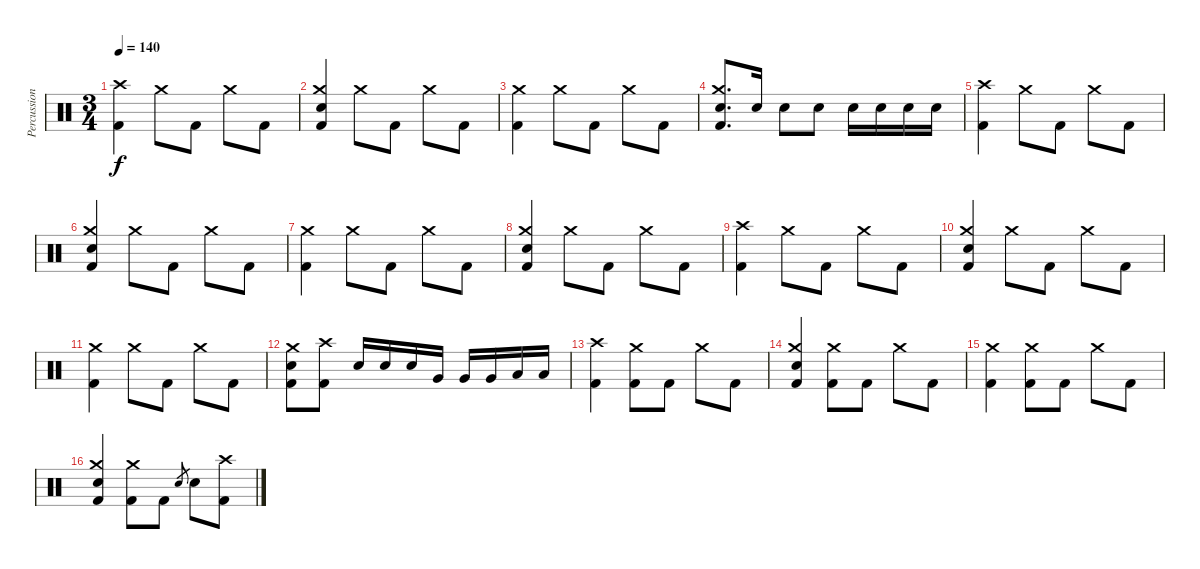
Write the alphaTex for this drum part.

\track ("Percussions" "Percussion") {instrument percussion}
\staff {score}
\articulation defaults
\ts (3 4)
\tempo 140
\clef neutral
\ks c
("Crash high (hit)" "Kick (hit) 2").4{dy f} "Crash medium (hit)".8 "Kick (hit) 2".8 "Crash medium (hit)".8 "Kick (hit) 2".8 |
("Crash medium (hit)" "Electric Snare (hit)" "Kick (hit) 2").4 "Crash medium (hit)".8 "Kick (hit) 2".8 "Crash medium (hit)".8 "Kick (hit) 2".8 |
("Crash medium (hit)" "Kick (hit) 2").4 "Crash medium (hit)".8 "Kick (hit) 2".8 "Crash medium (hit)".8 "Kick (hit) 2".8 |
("Crash medium (hit)" "Electric Snare (hit)" "Kick (hit) 2").8{d} "Electric Snare (hit)".16 "Electric Snare (hit)".8 "Electric Snare (hit)".8 "Electric Snare (hit)".16 "Electric Snare (hit)".16 "Electric Snare (hit)".16 "Electric Snare (hit)".16 |
("Crash high (hit)" "Kick (hit) 2").4 "Crash medium (hit)".8 "Kick (hit) 2".8 "Crash medium (hit)".8 "Kick (hit) 2".8 |
("Crash medium (hit)" "Electric Snare (hit)" "Kick (hit) 2").4 "Crash medium (hit)".8 "Kick (hit) 2".8 "Crash medium (hit)".8 "Kick (hit) 2".8 |
("Crash medium (hit)" "Kick (hit) 2").4 "Crash medium (hit)".8 "Kick (hit) 2".8 "Crash medium (hit)".8 "Kick (hit) 2".8 |
("Crash medium (hit)" "Electric Snare (hit)" "Kick (hit) 2").4 "Crash medium (hit)".8 "Kick (hit) 2".8 "Crash medium (hit)".8 "Kick (hit) 2".8 |
("Crash high (hit)" "Kick (hit) 2").4 "Crash medium (hit)".8 "Kick (hit) 2".8 "Crash medium (hit)".8 "Kick (hit) 2".8 |
("Crash medium (hit)" "Electric Snare (hit)" "Kick (hit) 2").4 "Crash medium (hit)".8 "Kick (hit) 2".8 "Crash medium (hit)".8 "Kick (hit) 2".8 |
("Crash medium (hit)" "Kick (hit) 2").4 "Crash medium (hit)".8 "Kick (hit) 2".8 "Crash medium (hit)".8 "Kick (hit) 2".8 |
("Crash medium (hit)" "Electric Snare (hit)" "Kick (hit) 2").8 ("Crash high (hit)" "Kick (hit) 2").8 "Electric Snare (hit)".16 "Electric Snare (hit)".16 "Electric Snare (hit)".16 "Very Low Tom (hit)".16 "Very Low Tom (hit)".16 "Very Low Tom (hit)".16 "Low Floor Tom (hit)".16 "Low Floor Tom (hit)".16 |
("Crash high (hit)" "Kick (hit) 2").4 ("Crash medium (hit)" "Kick (hit) 2").8 "Kick (hit) 2".8 "Crash medium (hit)".8 "Kick (hit) 2".8 |
("Crash medium (hit)" "Electric Snare (hit)" "Kick (hit) 2").4 ("Crash medium (hit)" "Kick (hit) 2").8 "Kick (hit) 2".8 "Crash medium (hit)".8 "Kick (hit) 2".8 |
("Crash medium (hit)" "Kick (hit) 2").4 ("Crash medium (hit)" "Kick (hit) 2").8 "Kick (hit) 2".8 "Crash medium (hit)".8 "Kick (hit) 2".8 |
("Crash medium (hit)" "Electric Snare (hit)" "Kick (hit) 2").4 ("Crash medium (hit)" "Kick (hit) 2").8 "Kick (hit) 2".8 "Electric Snare (hit)".8{gr} "Electric Snare (hit)".8 ("Crash high (hit)" "Kick (hit) 2").8
